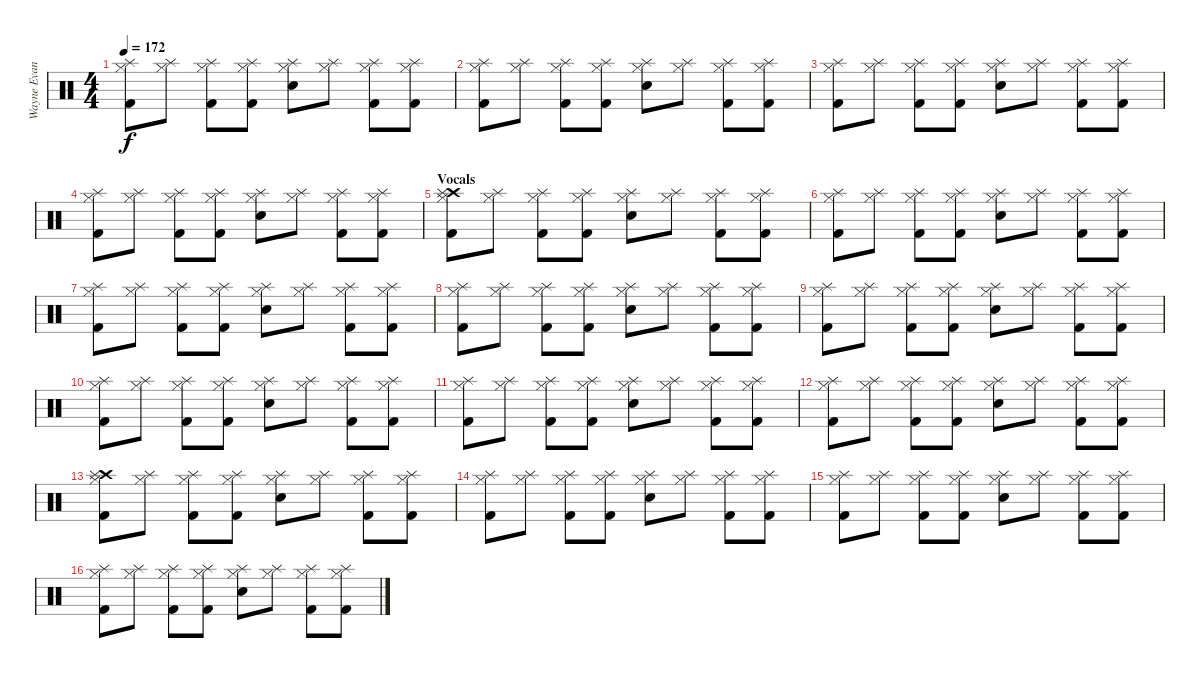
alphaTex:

\track ("Wayne Evans  " "Wayne Evan") {instrument percussion}
\staff {score}
\articulation defaults
\ts (4 4)
\tempo 172
\clef neutral
\ks c
("Splash (hit)" "Hi-Hat (closed)" "Kick (hit) 2").8{dy f} ("Splash (hit)" "Hi-Hat (closed)").8 ("Splash (hit)" "Hi-Hat (closed)" "Kick (hit) 2").8 ("Splash (hit)" "Hi-Hat (closed)" "Kick (hit) 2").8 ("Splash (hit)" "Hi-Hat (closed)" "Electric Snare (hit)").8 ("Splash (hit)" "Hi-Hat (closed)").8 ("Splash (hit)" "Hi-Hat (closed)" "Kick (hit) 2").8 ("Splash (hit)" "Hi-Hat (closed)" "Kick (hit) 2").8 |
("Splash (hit)" "Hi-Hat (closed)" "Kick (hit) 2").8 ("Splash (hit)" "Hi-Hat (closed)").8 ("Splash (hit)" "Hi-Hat (closed)" "Kick (hit) 2").8 ("Splash (hit)" "Hi-Hat (closed)" "Kick (hit) 2").8 ("Splash (hit)" "Hi-Hat (closed)" "Electric Snare (hit)").8 ("Splash (hit)" "Hi-Hat (closed)").8 ("Splash (hit)" "Hi-Hat (closed)" "Kick (hit) 2").8 ("Splash (hit)" "Hi-Hat (closed)" "Kick (hit) 2").8 |
("Splash (hit)" "Hi-Hat (closed)" "Kick (hit) 2").8 ("Splash (hit)" "Hi-Hat (closed)").8 ("Splash (hit)" "Hi-Hat (closed)" "Kick (hit) 2").8 ("Splash (hit)" "Hi-Hat (closed)" "Kick (hit) 2").8 ("Splash (hit)" "Hi-Hat (closed)" "Electric Snare (hit)").8 ("Splash (hit)" "Hi-Hat (closed)").8 ("Splash (hit)" "Hi-Hat (closed)" "Kick (hit) 2").8 ("Splash (hit)" "Hi-Hat (closed)" "Kick (hit) 2").8 |
("Splash (hit)" "Hi-Hat (closed)" "Kick (hit) 2").8 ("Splash (hit)" "Hi-Hat (closed)").8 ("Splash (hit)" "Hi-Hat (closed)" "Kick (hit) 2").8 ("Splash (hit)" "Hi-Hat (closed)" "Kick (hit) 2").8 ("Splash (hit)" "Hi-Hat (closed)" "Electric Snare (hit)").8 ("Splash (hit)" "Hi-Hat (closed)").8 ("Splash (hit)" "Hi-Hat (closed)" "Kick (hit) 2").8 ("Splash (hit)" "Hi-Hat (closed)" "Kick (hit) 2").8 |
\section ("" "Vocals")
("Crash high (hit)" "Splash (hit)" "Hi-Hat (closed)" "Kick (hit) 2").8 ("Splash (hit)" "Hi-Hat (closed)").8 ("Splash (hit)" "Hi-Hat (closed)" "Kick (hit) 2").8 ("Splash (hit)" "Hi-Hat (closed)" "Kick (hit) 2").8 ("Splash (hit)" "Hi-Hat (closed)" "Electric Snare (hit)").8 ("Splash (hit)" "Hi-Hat (closed)").8 ("Splash (hit)" "Hi-Hat (closed)" "Kick (hit) 2").8 ("Splash (hit)" "Hi-Hat (closed)" "Kick (hit) 2").8 |
("Splash (hit)" "Hi-Hat (closed)" "Kick (hit) 2").8 ("Splash (hit)" "Hi-Hat (closed)").8 ("Splash (hit)" "Hi-Hat (closed)" "Kick (hit) 2").8 ("Splash (hit)" "Hi-Hat (closed)" "Kick (hit) 2").8 ("Splash (hit)" "Hi-Hat (closed)" "Electric Snare (hit)").8 ("Splash (hit)" "Hi-Hat (closed)").8 ("Splash (hit)" "Hi-Hat (closed)" "Kick (hit) 2").8 ("Splash (hit)" "Hi-Hat (closed)" "Kick (hit) 2").8 |
("Splash (hit)" "Hi-Hat (closed)" "Kick (hit) 2").8 ("Splash (hit)" "Hi-Hat (closed)").8 ("Splash (hit)" "Hi-Hat (closed)" "Kick (hit) 2").8 ("Splash (hit)" "Hi-Hat (closed)" "Kick (hit) 2").8 ("Splash (hit)" "Hi-Hat (closed)" "Electric Snare (hit)").8 ("Splash (hit)" "Hi-Hat (closed)").8 ("Splash (hit)" "Hi-Hat (closed)" "Kick (hit) 2").8 ("Splash (hit)" "Hi-Hat (closed)" "Kick (hit) 2").8 |
("Splash (hit)" "Hi-Hat (closed)" "Kick (hit) 2").8 ("Splash (hit)" "Hi-Hat (closed)").8 ("Splash (hit)" "Hi-Hat (closed)" "Kick (hit) 2").8 ("Splash (hit)" "Hi-Hat (closed)" "Kick (hit) 2").8 ("Splash (hit)" "Hi-Hat (closed)" "Electric Snare (hit)").8 ("Splash (hit)" "Hi-Hat (closed)").8 ("Splash (hit)" "Hi-Hat (closed)" "Kick (hit) 2").8 ("Splash (hit)" "Hi-Hat (closed)" "Kick (hit) 2").8 |
("Splash (hit)" "Hi-Hat (closed)" "Kick (hit) 2").8 ("Splash (hit)" "Hi-Hat (closed)").8 ("Splash (hit)" "Hi-Hat (closed)" "Kick (hit) 2").8 ("Splash (hit)" "Hi-Hat (closed)" "Kick (hit) 2").8 ("Splash (hit)" "Hi-Hat (closed)" "Electric Snare (hit)").8 ("Splash (hit)" "Hi-Hat (closed)").8 ("Splash (hit)" "Hi-Hat (closed)" "Kick (hit) 2").8 ("Splash (hit)" "Hi-Hat (closed)" "Kick (hit) 2").8 |
("Splash (hit)" "Hi-Hat (closed)" "Kick (hit) 2").8 ("Splash (hit)" "Hi-Hat (closed)").8 ("Splash (hit)" "Hi-Hat (closed)" "Kick (hit) 2").8 ("Splash (hit)" "Hi-Hat (closed)" "Kick (hit) 2").8 ("Splash (hit)" "Hi-Hat (closed)" "Electric Snare (hit)").8 ("Splash (hit)" "Hi-Hat (closed)").8 ("Splash (hit)" "Hi-Hat (closed)" "Kick (hit) 2").8 ("Splash (hit)" "Hi-Hat (closed)" "Kick (hit) 2").8 |
("Splash (hit)" "Hi-Hat (closed)" "Kick (hit) 2").8 ("Splash (hit)" "Hi-Hat (closed)").8 ("Splash (hit)" "Hi-Hat (closed)" "Kick (hit) 2").8 ("Splash (hit)" "Hi-Hat (closed)" "Kick (hit) 2").8 ("Splash (hit)" "Hi-Hat (closed)" "Electric Snare (hit)").8 ("Splash (hit)" "Hi-Hat (closed)").8 ("Splash (hit)" "Hi-Hat (closed)" "Kick (hit) 2").8 ("Splash (hit)" "Hi-Hat (closed)" "Kick (hit) 2").8 |
("Splash (hit)" "Hi-Hat (closed)" "Kick (hit) 2").8 ("Splash (hit)" "Hi-Hat (closed)").8 ("Splash (hit)" "Hi-Hat (closed)" "Kick (hit) 2").8 ("Splash (hit)" "Hi-Hat (closed)" "Kick (hit) 2").8 ("Splash (hit)" "Hi-Hat (closed)" "Electric Snare (hit)").8 ("Splash (hit)" "Hi-Hat (closed)").8 ("Splash (hit)" "Hi-Hat (closed)" "Kick (hit) 2").8 ("Splash (hit)" "Hi-Hat (closed)" "Kick (hit) 2").8 |
("Crash high (hit)" "Splash (hit)" "Hi-Hat (closed)" "Kick (hit) 2").8 ("Splash (hit)" "Hi-Hat (closed)").8 ("Splash (hit)" "Hi-Hat (closed)" "Kick (hit) 2").8 ("Splash (hit)" "Hi-Hat (closed)" "Kick (hit) 2").8 ("Splash (hit)" "Hi-Hat (closed)" "Electric Snare (hit)").8 ("Splash (hit)" "Hi-Hat (closed)").8 ("Splash (hit)" "Hi-Hat (closed)" "Kick (hit) 2").8 ("Splash (hit)" "Hi-Hat (closed)" "Kick (hit) 2").8 |
("Splash (hit)" "Hi-Hat (closed)" "Kick (hit) 2").8 ("Splash (hit)" "Hi-Hat (closed)").8 ("Splash (hit)" "Hi-Hat (closed)" "Kick (hit) 2").8 ("Splash (hit)" "Hi-Hat (closed)" "Kick (hit) 2").8 ("Splash (hit)" "Hi-Hat (closed)" "Electric Snare (hit)").8 ("Splash (hit)" "Hi-Hat (closed)").8 ("Splash (hit)" "Hi-Hat (closed)" "Kick (hit) 2").8 ("Splash (hit)" "Hi-Hat (closed)" "Kick (hit) 2").8 |
("Splash (hit)" "Hi-Hat (closed)" "Kick (hit) 2").8 ("Splash (hit)" "Hi-Hat (closed)").8 ("Splash (hit)" "Hi-Hat (closed)" "Kick (hit) 2").8 ("Splash (hit)" "Hi-Hat (closed)" "Kick (hit) 2").8 ("Splash (hit)" "Hi-Hat (closed)" "Electric Snare (hit)").8 ("Splash (hit)" "Hi-Hat (closed)").8 ("Splash (hit)" "Hi-Hat (closed)" "Kick (hit) 2").8 ("Splash (hit)" "Hi-Hat (closed)" "Kick (hit) 2").8 |
("Splash (hit)" "Hi-Hat (closed)" "Kick (hit) 2").8 ("Splash (hit)" "Hi-Hat (closed)").8 ("Splash (hit)" "Hi-Hat (closed)" "Kick (hit) 2").8 ("Splash (hit)" "Hi-Hat (closed)" "Kick (hit) 2").8 ("Splash (hit)" "Hi-Hat (closed)" "Electric Snare (hit)").8 ("Splash (hit)" "Hi-Hat (closed)").8 ("Splash (hit)" "Hi-Hat (closed)" "Kick (hit) 2").8 ("Splash (hit)" "Hi-Hat (closed)" "Kick (hit) 2").8
